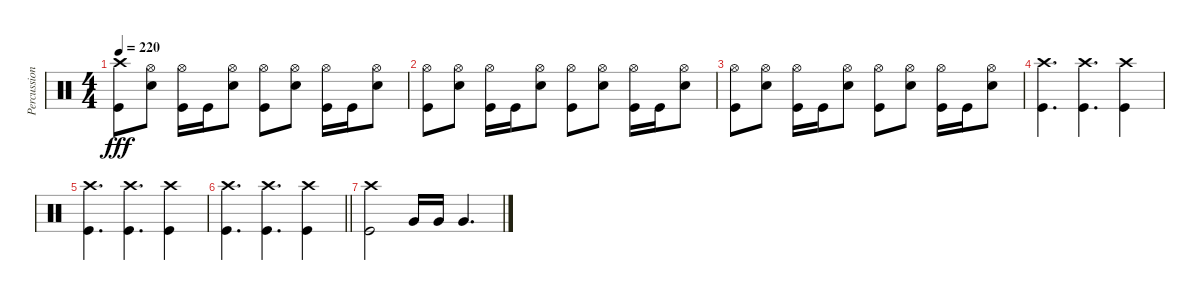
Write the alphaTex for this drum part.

\track ("Percussion" "Percussion") {instrument percussion}
\staff {score}
\articulation defaults
\ts (4 4)
\tempo 220
\clef neutral
\ks c
("Crash high (hit)" "Kick (hit)").8{dy fff} ("Hi-Hat (open)" "Snare (hit) 2").8 ("Hi-Hat (open)" "Kick (hit)").16 "Kick (hit)".16 ("Hi-Hat (open)" "Snare (hit) 2").8 ("Hi-Hat (open)" "Kick (hit)").8 ("Hi-Hat (open)" "Snare (hit) 2").8 ("Hi-Hat (open)" "Kick (hit)").16 "Kick (hit)".16 ("Hi-Hat (open)" "Snare (hit) 2").8 |
("Hi-Hat (open)" "Kick (hit)").8 ("Hi-Hat (open)" "Snare (hit) 2").8 ("Hi-Hat (open)" "Kick (hit)").16 "Kick (hit)".16 ("Hi-Hat (open)" "Snare (hit) 2").8 ("Hi-Hat (open)" "Kick (hit)").8 ("Hi-Hat (open)" "Snare (hit) 2").8 ("Hi-Hat (open)" "Kick (hit)").16 "Kick (hit)".16 ("Hi-Hat (open)" "Snare (hit) 2").8 |
("Hi-Hat (open)" "Kick (hit)").8 ("Hi-Hat (open)" "Snare (hit) 2").8 ("Hi-Hat (open)" "Kick (hit)").16 "Kick (hit)".16 ("Hi-Hat (open)" "Snare (hit) 2").8 ("Hi-Hat (open)" "Kick (hit)").8 ("Hi-Hat (open)" "Snare (hit) 2").8 ("Hi-Hat (open)" "Kick (hit)").16 "Kick (hit)".16 ("Hi-Hat (open)" "Snare (hit) 2").8 |
("Crash high (hit)" "Kick (hit)").4{d} ("Crash high (hit)" "Kick (hit)").4{d} ("Crash high (hit)" "Kick (hit)").4 |
("Crash high (hit)" "Kick (hit)").4{d} ("Crash high (hit)" "Kick (hit)").4{d} ("Crash high (hit)" "Kick (hit)").4 |
\barLineRight lightlight
("Crash high (hit)" "Kick (hit)").4{d} ("Crash high (hit)" "Kick (hit)").4{d} ("Crash high (hit)" "Kick (hit)").4 |
("Crash high (hit)" "Kick (hit)").2 "Very Low Tom (hit)".16 "Very Low Tom (hit)".16 "Very Low Tom (hit)".4{d}
